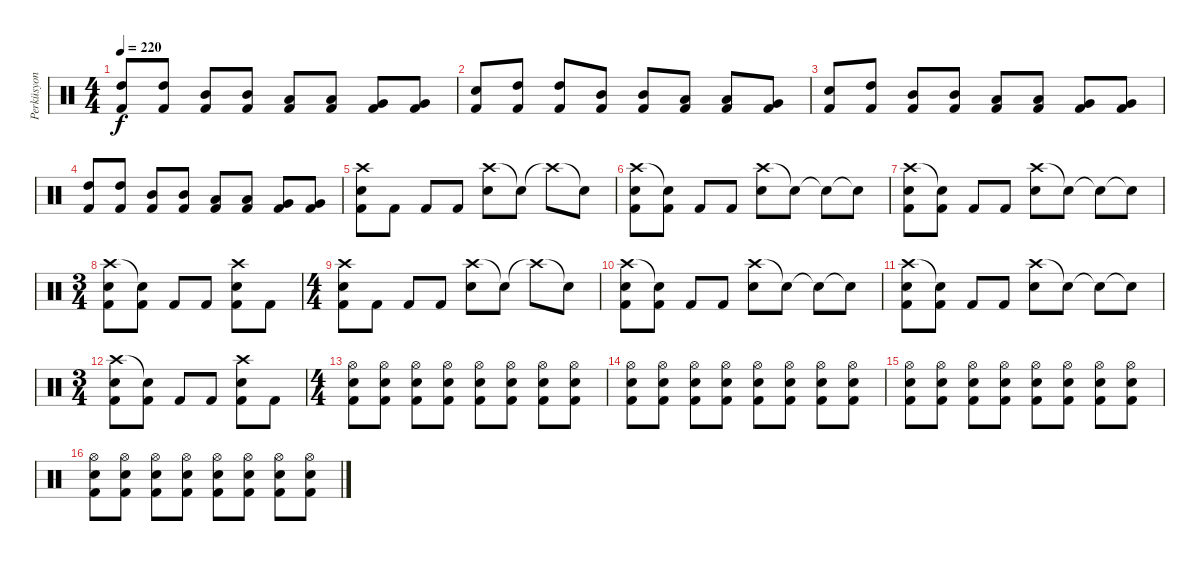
\track ("Perküsyon" "Perküsyon") {instrument percussion}
\staff {score}
\articulation defaults
\ts (4 4)
\tempo 220
\clef neutral
\ks c
("High Tom (hit)" "Kick (hit) 2").8{dy f} ("High Tom (hit)" "Kick (hit) 2").8 ("Mid Tom (hit)" "Kick (hit) 2").8 ("Mid Tom (hit)" "Kick (hit) 2").8 ("Low Tom (hit)" "Kick (hit) 2").8 ("Low Tom (hit)" "Kick (hit) 2").8 ("Very Low Tom (hit)" "Kick (hit) 2").8 ("Very Low Tom (hit)" "Kick (hit) 2").8 |
("Electric Snare (hit)" "Kick (hit) 2").8 ("High Tom (hit)" "Kick (hit) 2").8 ("High Tom (hit)" "Kick (hit) 2").8 ("Mid Tom (hit)" "Kick (hit) 2").8 ("Mid Tom (hit)" "Kick (hit) 2").8 ("Low Tom (hit)" "Kick (hit) 2").8 ("Low Tom (hit)" "Kick (hit) 2").8 ("Very Low Tom (hit)" "Kick (hit) 2").8 |
("Electric Snare (hit)" "Kick (hit) 2").8 ("High Tom (hit)" "Kick (hit) 2").8 ("Mid Tom (hit)" "Kick (hit) 2").8 ("Mid Tom (hit)" "Kick (hit) 2").8 ("Low Tom (hit)" "Kick (hit) 2").8 ("Low Tom (hit)" "Kick (hit) 2").8 ("Very Low Tom (hit)" "Kick (hit) 2").8 ("Very Low Tom (hit)" "Kick (hit) 2").8 |
("High Tom (hit)" "Kick (hit) 2").8 ("High Tom (hit)" "Kick (hit) 2").8 ("Mid Tom (hit)" "Kick (hit) 2").8 ("Mid Tom (hit)" "Kick (hit) 2").8 ("Low Tom (hit)" "Kick (hit) 2").8 ("Low Tom (hit)" "Kick (hit) 2").8 ("Very Low Tom (hit)" "Kick (hit) 2").8 ("Very Low Tom (hit)" "Kick (hit) 2").8 |
("Crash high (hit)" "Electric Snare (hit)" "Kick (hit) 2").8 "Kick (hit) 2".8 "Kick (hit) 2".8 "Kick (hit) 2".8 ("Crash high (hit)" "Electric Snare (hit)").8 "Snare (hit)"{t}.8 "Crash high (hit)"{t}.8 "Snare (hit)"{t}.8 |
("Crash high (hit)" "Electric Snare (hit)" "Kick (hit) 2").8 ("Snare (hit)"{t} "Kick (hit) 2").8 "Kick (hit) 2".8 "Kick (hit) 2".8 ("Crash high (hit)" "Electric Snare (hit)").8 "Snare (hit)"{t}.8 "Snare (hit)"{t}.8 "Snare (hit)"{t}.8 |
("Crash high (hit)" "Electric Snare (hit)" "Kick (hit) 2").8 ("Snare (hit)"{t} "Kick (hit) 2").8 "Kick (hit) 2".8 "Kick (hit) 2".8 ("Crash high (hit)" "Electric Snare (hit)").8 "Snare (hit)"{t}.8 "Snare (hit)"{t}.8 "Snare (hit)"{t}.8 |
\ts (3 4)
("Crash high (hit)" "Electric Snare (hit)" "Kick (hit) 2").8 ("Snare (hit)"{t} "Kick (hit) 2").8 "Kick (hit) 2".8 "Kick (hit) 2".8 ("Crash high (hit)" "Electric Snare (hit)" "Kick (hit) 2").8 "Kick (hit) 2".8 |
\ts (4 4)
("Crash high (hit)" "Electric Snare (hit)" "Kick (hit) 2").8 "Kick (hit) 2".8 "Kick (hit) 2".8 "Kick (hit) 2".8 ("Crash high (hit)" "Electric Snare (hit)").8 "Snare (hit)"{t}.8 "Crash high (hit)"{t}.8 "Snare (hit)"{t}.8 |
("Crash high (hit)" "Electric Snare (hit)" "Kick (hit) 2").8 ("Snare (hit)"{t} "Kick (hit) 2").8 "Kick (hit) 2".8 "Kick (hit) 2".8 ("Crash high (hit)" "Electric Snare (hit)").8 "Snare (hit)"{t}.8 "Snare (hit)"{t}.8 "Snare (hit)"{t}.8 |
("Crash high (hit)" "Electric Snare (hit)" "Kick (hit) 2").8 ("Snare (hit)"{t} "Kick (hit) 2").8 "Kick (hit) 2".8 "Kick (hit) 2".8 ("Crash high (hit)" "Electric Snare (hit)").8 "Snare (hit)"{t}.8 "Snare (hit)"{t}.8 "Snare (hit)"{t}.8 |
\ts (3 4)
("Crash high (hit)" "Electric Snare (hit)" "Kick (hit) 2").8 ("Snare (hit)"{t} "Kick (hit) 2").8 "Kick (hit) 2".8 "Kick (hit) 2".8 ("Crash high (hit)" "Electric Snare (hit)" "Kick (hit) 2").8 "Kick (hit) 2".8 |
\ts (4 4)
("Hi-Hat (open)" "Electric Snare (hit)" "Kick (hit) 2").8 ("Hi-Hat (open)" "Electric Snare (hit)" "Kick (hit) 2").8 ("Hi-Hat (open)" "Electric Snare (hit)" "Kick (hit) 2").8 ("Hi-Hat (open)" "Electric Snare (hit)" "Kick (hit) 2").8 ("Hi-Hat (open)" "Electric Snare (hit)" "Kick (hit) 2").8 ("Hi-Hat (open)" "Electric Snare (hit)" "Kick (hit) 2").8 ("Hi-Hat (open)" "Electric Snare (hit)" "Kick (hit) 2").8 ("Hi-Hat (open)" "Electric Snare (hit)" "Kick (hit) 2").8 |
("Hi-Hat (open)" "Electric Snare (hit)" "Kick (hit) 2").8 ("Hi-Hat (open)" "Electric Snare (hit)" "Kick (hit) 2").8 ("Hi-Hat (open)" "Electric Snare (hit)" "Kick (hit) 2").8 ("Hi-Hat (open)" "Electric Snare (hit)" "Kick (hit) 2").8 ("Hi-Hat (open)" "Electric Snare (hit)" "Kick (hit) 2").8 ("Hi-Hat (open)" "Electric Snare (hit)" "Kick (hit) 2").8 ("Hi-Hat (open)" "Electric Snare (hit)" "Kick (hit) 2").8 ("Hi-Hat (open)" "Electric Snare (hit)" "Kick (hit) 2").8 |
("Hi-Hat (open)" "Electric Snare (hit)" "Kick (hit) 2").8 ("Hi-Hat (open)" "Electric Snare (hit)" "Kick (hit) 2").8 ("Hi-Hat (open)" "Electric Snare (hit)" "Kick (hit) 2").8 ("Hi-Hat (open)" "Electric Snare (hit)" "Kick (hit) 2").8 ("Hi-Hat (open)" "Electric Snare (hit)" "Kick (hit) 2").8 ("Hi-Hat (open)" "Electric Snare (hit)" "Kick (hit) 2").8 ("Hi-Hat (open)" "Electric Snare (hit)" "Kick (hit) 2").8 ("Hi-Hat (open)" "Electric Snare (hit)" "Kick (hit) 2").8 |
("Hi-Hat (open)" "Electric Snare (hit)" "Kick (hit) 2").8 ("Hi-Hat (open)" "Electric Snare (hit)" "Kick (hit) 2").8 ("Hi-Hat (open)" "Electric Snare (hit)" "Kick (hit) 2").8 ("Hi-Hat (open)" "Electric Snare (hit)" "Kick (hit) 2").8 ("Hi-Hat (open)" "Electric Snare (hit)" "Kick (hit) 2").8 ("Hi-Hat (open)" "Electric Snare (hit)" "Kick (hit) 2").8 ("Hi-Hat (open)" "Electric Snare (hit)" "Kick (hit) 2").8 ("Hi-Hat (open)" "Electric Snare (hit)" "Kick (hit) 2").8
